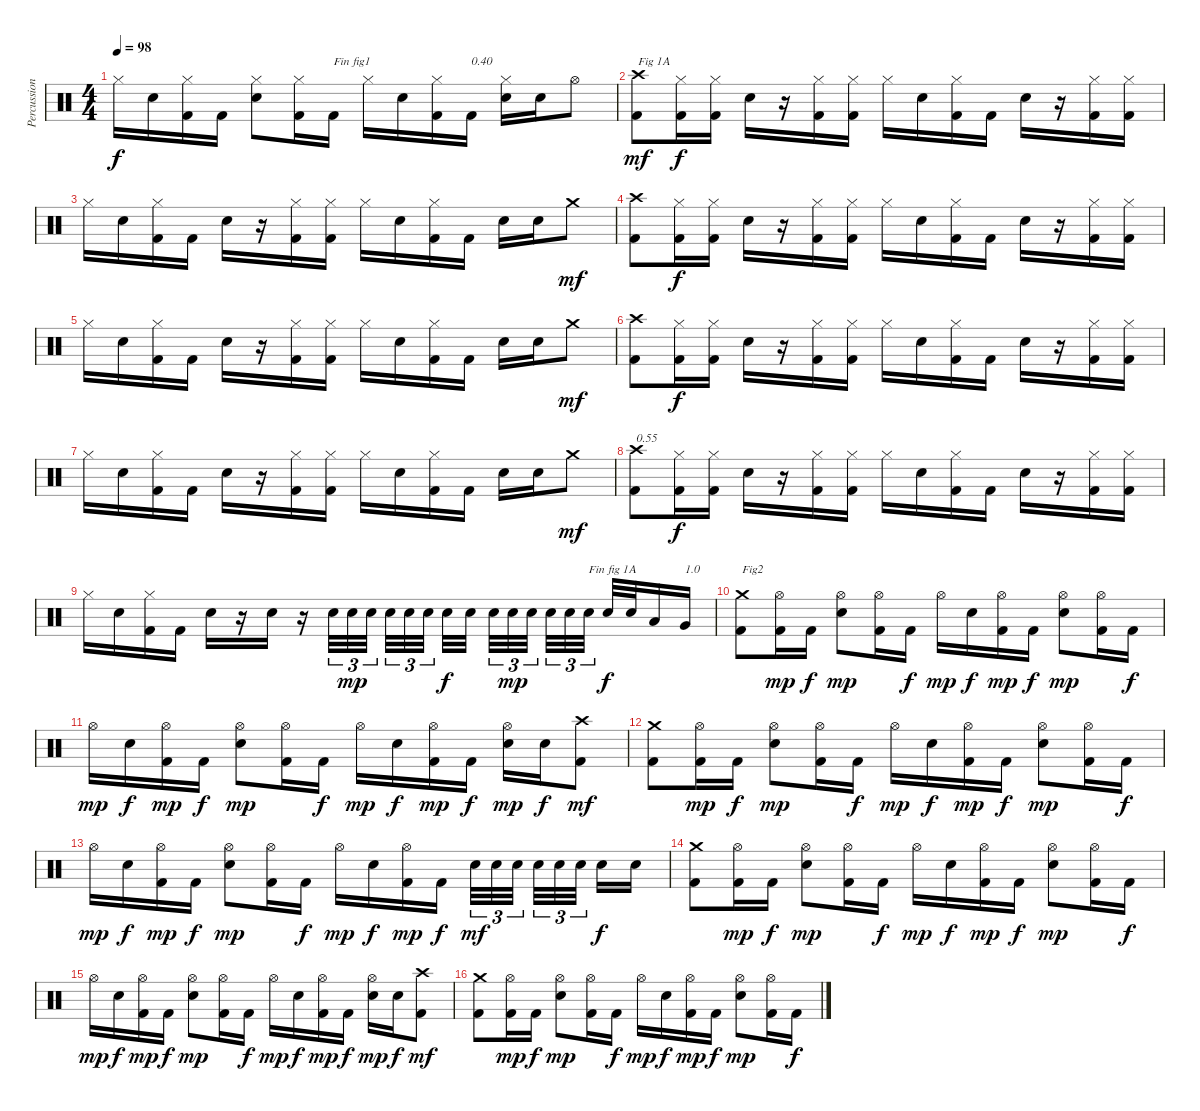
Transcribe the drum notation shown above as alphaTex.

\track ("Percussions" "Percussion") {instrument percussion}
\staff {score}
\articulation defaults
\ts (4 4)
\tempo 98
\clef neutral
\ks c "Hi-Hat (closed)".16{dy f} "Electric Snare (hit)".16
("Kick (hit) 2" "Hi-Hat (closed)").16 "Kick (hit) 2".16 ("Electric Snare (hit)" "Hi-Hat (closed)").8 ("Kick (hit) 2" "Hi-Hat (closed)").16 "Kick (hit) 2".16{txt "Fin fig1"} "Hi-Hat (closed)".16 "Electric Snare (hit)".16 ("Kick (hit) 2" "Hi-Hat (closed)").16 "Kick (hit) 2".16{txt "0.40"} ("Electric Snare (hit)" "Hi-Hat (closed)").16 "Electric Snare (hit)".16 "Hi-Hat (open)".8 |
("Kick (hit) 2" "Crash high (hit)").8{txt "Fig 1A" dy mf} ("Kick (hit) 2" "Hi-Hat (closed)").16{dy f} ("Kick (hit) 2" "Hi-Hat (closed)").16 "Electric Snare (hit)".16 r.16 ("Kick (hit) 2" "Hi-Hat (closed)").16 ("Kick (hit) 2" "Hi-Hat (closed)").16 "Hi-Hat (closed)".16 "Electric Snare (hit)".16 ("Kick (hit) 2" "Hi-Hat (closed)").16 "Kick (hit) 2".16 "Electric Snare (hit)".16 r.16 ("Kick (hit) 2" "Hi-Hat (closed)").16 ("Kick (hit) 2" "Hi-Hat (closed)").16 |
"Hi-Hat (closed)".16 "Electric Snare (hit)".16 ("Kick (hit) 2" "Hi-Hat (closed)").16 "Kick (hit) 2".16 "Electric Snare (hit)".16 r.16 ("Kick (hit) 2" "Hi-Hat (closed)").16 ("Kick (hit) 2" "Hi-Hat (closed)").16 "Hi-Hat (closed)".16 "Electric Snare (hit)".16 ("Kick (hit) 2" "Hi-Hat (closed)").16 "Kick (hit) 2".16 "Electric Snare (hit)".16 "Electric Snare (hit)".16 "Crash medium (hit)".8{dy mf} |
("Kick (hit) 2" "Crash high (hit)").8 ("Kick (hit) 2" "Hi-Hat (closed)").16{dy f} ("Kick (hit) 2" "Hi-Hat (closed)").16 "Electric Snare (hit)".16 r.16 ("Kick (hit) 2" "Hi-Hat (closed)").16 ("Kick (hit) 2" "Hi-Hat (closed)").16 "Hi-Hat (closed)".16 "Electric Snare (hit)".16 ("Kick (hit) 2" "Hi-Hat (closed)").16 "Kick (hit) 2".16 "Electric Snare (hit)".16 r.16 ("Kick (hit) 2" "Hi-Hat (closed)").16 ("Kick (hit) 2" "Hi-Hat (closed)").16 |
"Hi-Hat (closed)".16 "Electric Snare (hit)".16 ("Kick (hit) 2" "Hi-Hat (closed)").16 "Kick (hit) 2".16 "Electric Snare (hit)".16 r.16 ("Kick (hit) 2" "Hi-Hat (closed)").16 ("Kick (hit) 2" "Hi-Hat (closed)").16 "Hi-Hat (closed)".16 "Electric Snare (hit)".16 ("Kick (hit) 2" "Hi-Hat (closed)").16 "Kick (hit) 2".16 "Electric Snare (hit)".16 "Electric Snare (hit)".16 "Crash medium (hit)".8{dy mf} |
("Kick (hit) 2" "Crash high (hit)").8 ("Kick (hit) 2" "Hi-Hat (closed)").16{dy f} ("Kick (hit) 2" "Hi-Hat (closed)").16 "Electric Snare (hit)".16 r.16 ("Kick (hit) 2" "Hi-Hat (closed)").16 ("Kick (hit) 2" "Hi-Hat (closed)").16 "Hi-Hat (closed)".16 "Electric Snare (hit)".16 ("Kick (hit) 2" "Hi-Hat (closed)").16 "Kick (hit) 2".16 "Electric Snare (hit)".16 r.16 ("Kick (hit) 2" "Hi-Hat (closed)").16 ("Kick (hit) 2" "Hi-Hat (closed)").16 |
"Hi-Hat (closed)".16 "Electric Snare (hit)".16 ("Kick (hit) 2" "Hi-Hat (closed)").16 "Kick (hit) 2".16 "Electric Snare (hit)".16 r.16 ("Kick (hit) 2" "Hi-Hat (closed)").16 ("Kick (hit) 2" "Hi-Hat (closed)").16 "Hi-Hat (closed)".16 "Electric Snare (hit)".16 ("Kick (hit) 2" "Hi-Hat (closed)").16 "Kick (hit) 2".16 "Electric Snare (hit)".16 "Electric Snare (hit)".16 "Crash medium (hit)".8{dy mf} |
("Kick (hit) 2" "Crash high (hit)").8{txt "0.55"} ("Kick (hit) 2" "Hi-Hat (closed)").16{dy f} ("Kick (hit) 2" "Hi-Hat (closed)").16 "Electric Snare (hit)".16 r.16 ("Kick (hit) 2" "Hi-Hat (closed)").16 ("Kick (hit) 2" "Hi-Hat (closed)").16 "Hi-Hat (closed)".16 "Electric Snare (hit)".16 ("Kick (hit) 2" "Hi-Hat (closed)").16 "Kick (hit) 2".16 "Electric Snare (hit)".16 r.16 ("Kick (hit) 2" "Hi-Hat (closed)").16 ("Kick (hit) 2" "Hi-Hat (closed)").16 |
"Hi-Hat (closed)".16 "Electric Snare (hit)".16 ("Kick (hit) 2" "Hi-Hat (closed)").16 "Kick (hit) 2".16 "Electric Snare (hit)".16 r.16 "Electric Snare (hit)".16 r.16 "Electric Snare (hit)".32{tu (3 2)} "Electric Snare (hit)".32{tu (3 2) dy mp} "Electric Snare (hit)".32{tu (3 2)} "Electric Snare (hit)".32{tu (3 2)} "Electric Snare (hit)".32{tu (3 2)} "Electric Snare (hit)".32{tu (3 2)} "Electric Snare (hit)".32{dy f} "Electric Snare (hit)".32 "Electric Snare (hit)".32{tu (3 2)} "Electric Snare (hit)".32{tu (3 2) dy mp} "Electric Snare (hit)".32{tu (3 2)} "Electric Snare (hit)".32{tu (3 2)} "Electric Snare (hit)".32{tu (3 2)} "Electric Snare (hit)".32{tu (3 2) txt "Fin fig 1A"} "Electric Snare (hit)".32{dy f} "Electric Snare (hit)".32 "Low Tom (hit)".16 "Very Low Tom (hit)".16{txt "1.0"} |
("Kick (hit) 2" "Crash medium (hit)").8{txt "Fig2"} ("Kick (hit) 2" "Hi-Hat (open)").16{dy mp} "Kick (hit) 2".16{dy f} ("Electric Snare (hit)" "Hi-Hat (open)").8{dy mp} ("Kick (hit) 2" "Hi-Hat (open)").16 "Kick (hit) 2".16{dy f} "Hi-Hat (open)".16{dy mp} "Electric Snare (hit)".16{dy f} ("Kick (hit) 2" "Hi-Hat (open)").16{dy mp} "Kick (hit) 2".16{dy f} ("Electric Snare (hit)" "Hi-Hat (open)").8{dy mp} ("Kick (hit) 2" "Hi-Hat (open)").16 "Kick (hit) 2".16{dy f} |
"Hi-Hat (open)".16{dy mp} "Electric Snare (hit)".16{dy f} ("Kick (hit) 2" "Hi-Hat (open)").16{dy mp} "Kick (hit) 2".16{dy f} ("Electric Snare (hit)" "Hi-Hat (open)").8{dy mp} ("Kick (hit) 2" "Hi-Hat (open)").16 "Kick (hit) 2".16{dy f} "Hi-Hat (open)".16{dy mp} "Electric Snare (hit)".16{dy f} ("Kick (hit) 2" "Hi-Hat (open)").16{dy mp} "Kick (hit) 2".16{dy f} ("Electric Snare (hit)" "Hi-Hat (open)").16{dy mp} "Electric Snare (hit)".16{dy f} ("Kick (hit) 2" "Crash high (hit)").8{dy mf} |
("Kick (hit) 2" "Crash medium (hit)").8 ("Kick (hit) 2" "Hi-Hat (open)").16{dy mp} "Kick (hit) 2".16{dy f} ("Electric Snare (hit)" "Hi-Hat (open)").8{dy mp} ("Kick (hit) 2" "Hi-Hat (open)").16 "Kick (hit) 2".16{dy f} "Hi-Hat (open)".16{dy mp} "Electric Snare (hit)".16{dy f} ("Kick (hit) 2" "Hi-Hat (open)").16{dy mp} "Kick (hit) 2".16{dy f} ("Electric Snare (hit)" "Hi-Hat (open)").8{dy mp} ("Kick (hit) 2" "Hi-Hat (open)").16 "Kick (hit) 2".16{dy f} |
"Hi-Hat (open)".16{dy mp} "Electric Snare (hit)".16{dy f} ("Kick (hit) 2" "Hi-Hat (open)").16{dy mp} "Kick (hit) 2".16{dy f} ("Electric Snare (hit)" "Hi-Hat (open)").8{dy mp} ("Kick (hit) 2" "Hi-Hat (open)").16 "Kick (hit) 2".16{dy f} "Hi-Hat (open)".16{dy mp} "Electric Snare (hit)".16{dy f} ("Kick (hit) 2" "Hi-Hat (open)").16{dy mp} "Kick (hit) 2".16{dy f} "Electric Snare (hit)".32{tu (3 2) dy mf} "Electric Snare (hit)".32{tu (3 2)} "Electric Snare (hit)".32{tu (3 2)} "Electric Snare (hit)".32{tu (3 2)} "Electric Snare (hit)".32{tu (3 2)} "Electric Snare (hit)".32{tu (3 2)} "Electric Snare (hit)".16{dy f} "Electric Snare (hit)".16 |
("Kick (hit) 2" "Crash medium (hit)").8 ("Kick (hit) 2" "Hi-Hat (open)").16{dy mp} "Kick (hit) 2".16{dy f} ("Electric Snare (hit)" "Hi-Hat (open)").8{dy mp} ("Kick (hit) 2" "Hi-Hat (open)").16 "Kick (hit) 2".16{dy f} "Hi-Hat (open)".16{dy mp} "Electric Snare (hit)".16{dy f} ("Kick (hit) 2" "Hi-Hat (open)").16{dy mp} "Kick (hit) 2".16{dy f} ("Electric Snare (hit)" "Hi-Hat (open)").8{dy mp} ("Kick (hit) 2" "Hi-Hat (open)").16 "Kick (hit) 2".16{dy f} |
"Hi-Hat (open)".16{dy mp} "Electric Snare (hit)".16{dy f} ("Kick (hit) 2" "Hi-Hat (open)").16{dy mp} "Kick (hit) 2".16{dy f} ("Electric Snare (hit)" "Hi-Hat (open)").8{dy mp} ("Kick (hit) 2" "Hi-Hat (open)").16 "Kick (hit) 2".16{dy f} "Hi-Hat (open)".16{dy mp} "Electric Snare (hit)".16{dy f} ("Kick (hit) 2" "Hi-Hat (open)").16{dy mp} "Kick (hit) 2".16{dy f} ("Electric Snare (hit)" "Hi-Hat (open)").16{dy mp} "Electric Snare (hit)".16{dy f} ("Kick (hit) 2" "Crash high (hit)").8{dy mf} |
("Kick (hit) 2" "Crash medium (hit)").8 ("Kick (hit) 2" "Hi-Hat (open)").16{dy mp} "Kick (hit) 2".16{dy f} ("Electric Snare (hit)" "Hi-Hat (open)").8{dy mp} ("Kick (hit) 2" "Hi-Hat (open)").16 "Kick (hit) 2".16{dy f} "Hi-Hat (open)".16{dy mp} "Electric Snare (hit)".16{dy f} ("Kick (hit) 2" "Hi-Hat (open)").16{dy mp} "Kick (hit) 2".16{dy f} ("Electric Snare (hit)" "Hi-Hat (open)").8{dy mp} ("Kick (hit) 2" "Hi-Hat (open)").16 "Kick (hit) 2".16{dy f}
